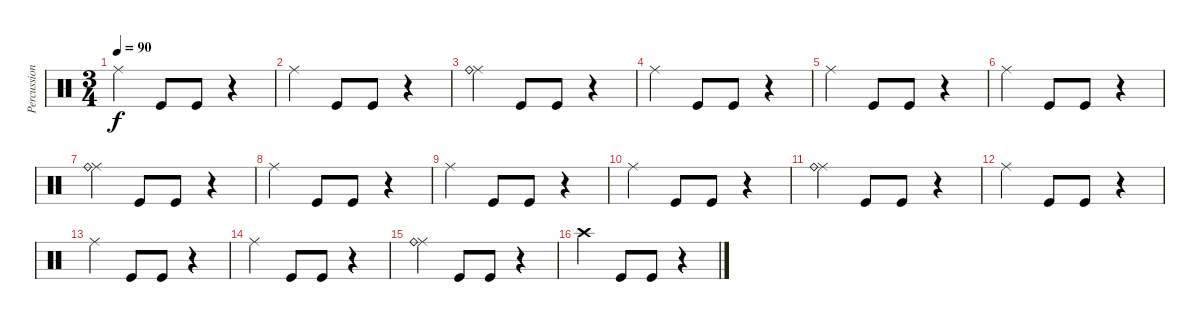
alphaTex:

\track ("Percussion" "Percussion") {instrument percussion}
\staff {score}
\articulation defaults
\ts (3 4)
\tempo 90
\clef neutral
\ks c "Ride (middle)".4{dy f} "Kick (hit)".8 "Kick (hit)".8
r.4 |
"Ride (middle)".4 "Kick (hit)".8 "Kick (hit)".8 r.4 |
("Ride (middle)" "Ride (bell)").4 "Kick (hit)".8 "Kick (hit)".8 r.4 |
"Ride (middle)".4 "Kick (hit)".8 "Kick (hit)".8 r.4 |
"Ride (middle)".4 "Kick (hit)".8 "Kick (hit)".8 r.4 |
"Ride (middle)".4 "Kick (hit)".8 "Kick (hit)".8 r.4 |
("Ride (middle)" "Ride (bell)").4 "Kick (hit)".8 "Kick (hit)".8 r.4 |
"Ride (middle)".4 "Kick (hit)".8 "Kick (hit)".8 r.4 |
"Ride (middle)".4 "Kick (hit)".8 "Kick (hit)".8 r.4 |
"Ride (middle)".4 "Kick (hit)".8 "Kick (hit)".8 r.4 |
("Ride (middle)" "Ride (bell)").4 "Kick (hit)".8 "Kick (hit)".8 r.4 |
"Ride (middle)".4 "Kick (hit)".8 "Kick (hit)".8 r.4 |
"Ride (middle)".4 "Kick (hit)".8 "Kick (hit)".8 r.4 |
"Ride (middle)".4 "Kick (hit)".8 "Kick (hit)".8 r.4 |
("Ride (middle)" "Ride (bell)").4 "Kick (hit)".8 "Kick (hit)".8 r.4 |
"Crash high (hit)".4 "Kick (hit)".8 "Kick (hit)".8 r.4
